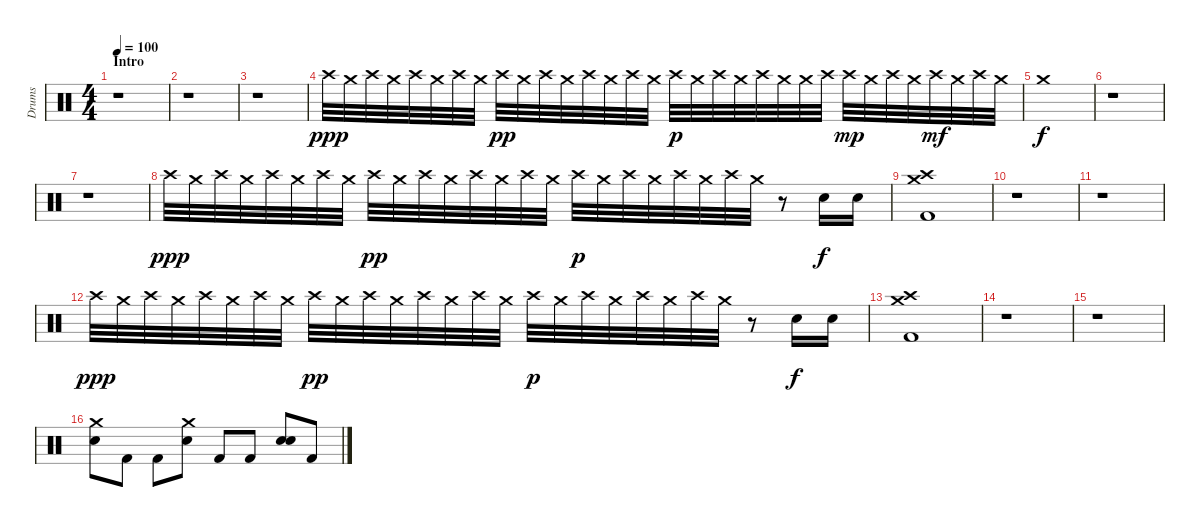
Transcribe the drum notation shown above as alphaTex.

\track ("Drums" "Drums") {instrument percussion}
\staff {score}
\articulation defaults
\ts (4 4)
\section ("" "Intro")
\tempo 100
\clef neutral
\ks c
r.1{dy ppp} |
r.1 |
r.1 |
"Crash high (hit)".32 "Crash medium (hit)".32 "Crash high (hit)".32 "Crash medium (hit)".32 "Crash high (hit)".32 "Crash medium (hit)".32 "Crash high (hit)".32 "Crash medium (hit)".32 "Crash high (hit)".32{dy pp} "Crash medium (hit)".32 "Crash high (hit)".32 "Crash medium (hit)".32 "Crash high (hit)".32 "Crash medium (hit)".32 "Crash high (hit)".32 "Crash medium (hit)".32 "Crash high (hit)".32{dy p} "Crash medium (hit)".32 "Crash high (hit)".32 "Crash medium (hit)".32 "Crash high (hit)".32 "Crash medium (hit)".32 "Crash medium (hit)".32 "Crash high (hit)".32 "Crash high (hit)".32{dy mp} "Crash medium (hit)".32 "Crash high (hit)".32 "Crash medium (hit)".32 "Crash high (hit)".32{dy mf} "Crash medium (hit)".32 "Crash high (hit)".32 "Crash medium (hit)".32 |
"Crash medium (hit)".1{dy f} |
r.1 |
r.1 |
"Crash high (hit)".32{dy ppp} "Crash medium (hit)".32 "Crash high (hit)".32 "Crash medium (hit)".32 "Crash high (hit)".32 "Crash medium (hit)".32 "Crash high (hit)".32 "Crash medium (hit)".32 "Crash high (hit)".32{dy pp} "Crash medium (hit)".32 "Crash high (hit)".32 "Crash medium (hit)".32 "Crash high (hit)".32 "Crash medium (hit)".32 "Crash high (hit)".32 "Crash medium (hit)".32 "Crash high (hit)".32{dy p} "Crash medium (hit)".32 "Crash high (hit)".32 "Crash medium (hit)".32 "Crash high (hit)".32 "Crash medium (hit)".32 "Crash high (hit)".32 "Crash medium (hit)".32 r.8 "Electric Snare (hit)".16{dy f} "Electric Snare (hit)".16 |
("Crash high (hit)" "Crash medium (hit)" "Kick (hit) 2").1 |
r.1 |
r.1 |
"Crash high (hit)".32{dy ppp} "Crash medium (hit)".32 "Crash high (hit)".32 "Crash medium (hit)".32 "Crash high (hit)".32 "Crash medium (hit)".32 "Crash high (hit)".32 "Crash medium (hit)".32 "Crash high (hit)".32{dy pp} "Crash medium (hit)".32 "Crash high (hit)".32 "Crash medium (hit)".32 "Crash high (hit)".32 "Crash medium (hit)".32 "Crash high (hit)".32 "Crash medium (hit)".32 "Crash high (hit)".32{dy p} "Crash medium (hit)".32 "Crash high (hit)".32 "Crash medium (hit)".32 "Crash high (hit)".32 "Crash medium (hit)".32 "Crash high (hit)".32 "Crash medium (hit)".32 r.8 "Electric Snare (hit)".16{dy f} "Electric Snare (hit)".16 |
("Crash high (hit)" "Crash medium (hit)" "Kick (hit) 2").1 |
r.1 |
r.1 |
("Crash medium (hit)" "Electric Snare (hit)").8 "Kick (hit) 2".8 "Kick (hit) 2".8 ("Crash medium (hit)" "Electric Snare (hit)").8 "Kick (hit) 2".8 "Kick (hit) 2".8 ("Electric Snare (hit)" "Electric Snare (hit)").8 "Kick (hit) 2".8
